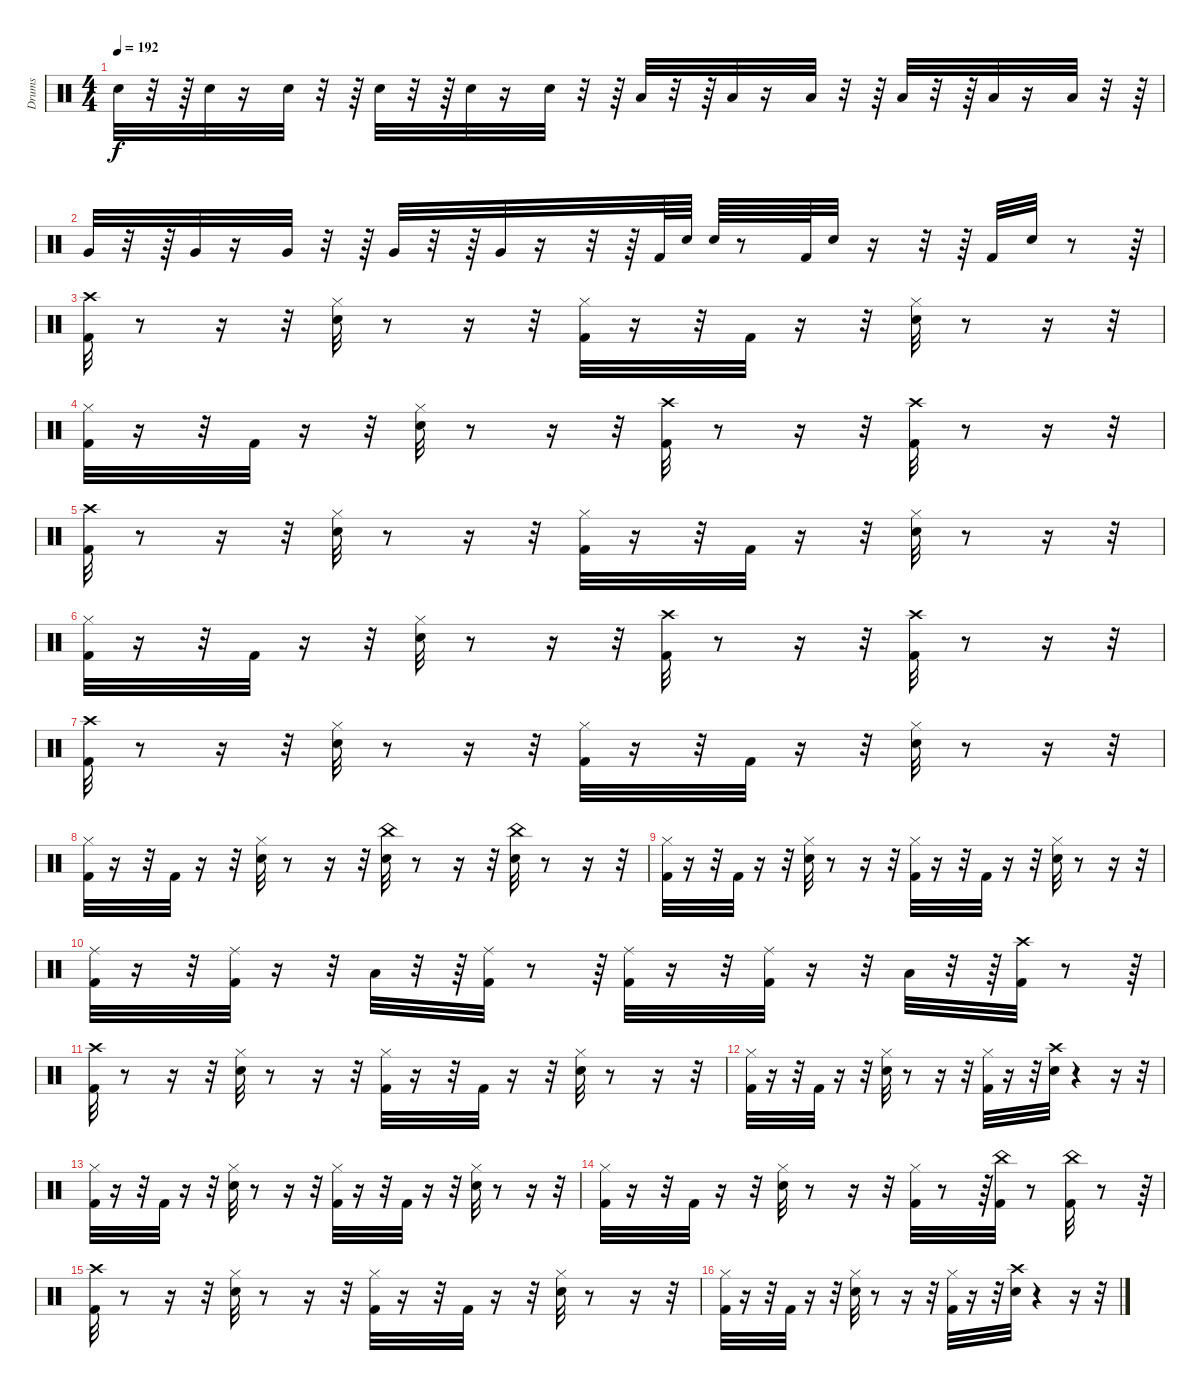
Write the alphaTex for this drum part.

\track ("Drums" "Drums") {instrument percussion}
\staff {score}
\articulation defaults
\ts (4 4)
\tempo 192
\clef neutral
\ks c "Snare (hit) 2".32{dy f}
r.32 r.64 "Snare (hit) 2".32 r.16 "Snare (hit) 2".32 r.32 r.64 "Snare (hit) 2".32 r.32 r.64 "Snare (hit) 2".32 r.16 "Snare (hit) 2".32 r.32 r.64 "Low Tom (hit)".32 r.32 r.64 "Low Tom (hit)".32 r.16 "Low Tom (hit)".32 r.32 r.64 "Low Tom (hit)".32 r.32 r.64 "Low Tom (hit)".32 r.16 "Low Tom (hit)".32 r.32 r.64 |
"Very Low Tom (hit)".32 r.32 r.64 "Very Low Tom (hit)".32 r.16 "Very Low Tom (hit)".32 r.32 r.64 "Very Low Tom (hit)".32 r.32 r.64 "Very Low Tom (hit)".32 r.16 r.32 r.64 "Kick (hit) 2".64 "Snare (hit) 2".64 "Snare (hit) 2".64 r.8 "Kick (hit) 2".64 "Snare (hit) 2".32 r.16 r.32 r.64 "Kick (hit) 2".32 "Snare (hit) 2".32 r.8 r.64 |
("Kick (hit) 2" "Crash high (hit)").32 r.8 r.16 r.32 ("Hi-Hat (closed)" "Snare (hit) 2").32 r.8 r.16 r.32 ("Kick (hit) 2" "Hi-Hat (closed)").32 r.16 r.32 "Kick (hit) 2".32 r.16 r.32 ("Snare (hit) 2" "Hi-Hat (closed)").32 r.8 r.16 r.32 |
("Kick (hit) 2" "Hi-Hat (closed)").32 r.16 r.32 "Kick (hit) 2".32 r.16 r.32 ("Snare (hit) 2" "Hi-Hat (closed)").32 r.8 r.16 r.32 ("Crash high (hit)" "Kick (hit) 2").32 r.8 r.16 r.32 ("Crash high (hit)" "Kick (hit) 2").32 r.8 r.16 r.32 |
("Kick (hit) 2" "Crash high (hit)").32 r.8 r.16 r.32 ("Hi-Hat (closed)" "Snare (hit) 2").32 r.8 r.16 r.32 ("Hi-Hat (closed)" "Kick (hit) 2").32 r.16 r.32 "Kick (hit) 2".32 r.16 r.32 ("Snare (hit) 2" "Hi-Hat (closed)").32 r.8 r.16 r.32 |
("Kick (hit) 2" "Hi-Hat (closed)").32 r.16 r.32 "Kick (hit) 2".32 r.16 r.32 ("Snare (hit) 2" "Hi-Hat (closed)").32 r.8 r.16 r.32 ("Crash high (hit)" "Kick (hit) 2").32 r.8 r.16 r.32 ("Crash high (hit)" "Kick (hit) 2").32 r.8 r.16 r.32 |
("Kick (hit) 2" "Crash high (hit)").32 r.8 r.16 r.32 ("Hi-Hat (closed)" "Snare (hit) 2").32 r.8 r.16 r.32 ("Hi-Hat (closed)" "Kick (hit) 2").32 r.16 r.32 "Kick (hit) 2".32 r.16 r.32 ("Hi-Hat (closed)" "Snare (hit) 2").32 r.8 r.16 r.32 |
("Kick (hit) 2" "Hi-Hat (closed)").32 r.16 r.32 "Kick (hit) 2".32 r.16 r.32 ("Snare (hit) 2" "Hi-Hat (closed)").32 r.8 r.16 r.32 ("China (hit)" "Snare (hit) 2").32 r.8 r.16 r.32 ("China (hit)" "Snare (hit) 2").32 r.8 r.16 r.32 |
("Kick (hit) 2" "Hi-Hat (closed)").32 r.16 r.32 "Kick (hit) 2".32 r.16 r.32 ("Snare (hit) 2" "Hi-Hat (closed)").32 r.8 r.16 r.32 ("Kick (hit) 2" "Hi-Hat (closed)").32 r.16 r.32 "Kick (hit) 2".32 r.16 r.32 ("Snare (hit) 2" "Hi-Hat (closed)").32 r.8 r.16 r.32 |
("Ride (middle)" "Kick (hit) 2").32 r.16 r.32 ("Ride (middle)" "Kick (hit) 2").32 r.16 r.32 "Low Tom (hit)".32 r.32 r.64 ("Ride (middle)" "Kick (hit) 2").32 r.8 r.64 ("Ride (middle)" "Kick (hit) 2").32 r.16 r.32 ("Ride (middle)" "Kick (hit) 2").32 r.16 r.32 "Low Tom (hit)".32 r.32 r.64 ("Crash high (hit)" "Kick (hit) 2").32 r.8 r.64 |
("Kick (hit) 2" "Crash high (hit)").32 r.8 r.16 r.32 ("Hi-Hat (closed)" "Snare (hit) 2").32 r.8 r.16 r.32 ("Hi-Hat (closed)" "Kick (hit) 2").32 r.16 r.32 "Kick (hit) 2".32 r.16 r.32 ("Hi-Hat (closed)" "Snare (hit) 2").32 r.8 r.16 r.32 |
("Kick (hit) 2" "Hi-Hat (closed)").32 r.16 r.32 "Kick (hit) 2".32 r.16 r.32 ("Snare (hit) 2" "Hi-Hat (closed)").32 r.8 r.16 r.32 ("Hi-Hat (closed)" "Kick (hit) 2").32 r.16 r.32 ("Crash high (hit)" "Snare (hit) 2").32 r.4 r.16 r.32 |
("Hi-Hat (closed)" "Kick (hit) 2").32 r.16 r.32 "Kick (hit) 2".32 r.16 r.32 ("Snare (hit) 2" "Hi-Hat (closed)").32 r.8 r.16 r.32 ("Hi-Hat (closed)" "Kick (hit) 2").32 r.16 r.32 "Kick (hit) 2".32 r.16 r.32 ("Snare (hit) 2" "Hi-Hat (closed)").32 r.8 r.16 r.32 |
("Kick (hit) 2" "Hi-Hat (closed)").32 r.16 r.32 "Kick (hit) 2".32 r.16 r.32 ("Snare (hit) 2" "Hi-Hat (closed)").32 r.8 r.16 r.32 ("Hi-Hat (closed)" "Kick (hit) 2").32 r.8 r.64 ("China (hit)" "Kick (hit) 2").32 r.8 ("China (hit)" "Kick (hit) 2").32 r.8 r.64 |
("Kick (hit) 2" "Crash high (hit)").32 r.8 r.16 r.32 ("Hi-Hat (closed)" "Snare (hit) 2").32 r.8 r.16 r.32 ("Hi-Hat (closed)" "Kick (hit) 2").32 r.16 r.32 "Kick (hit) 2".32 r.16 r.32 ("Snare (hit) 2" "Hi-Hat (closed)").32 r.8 r.16 r.32 |
("Hi-Hat (closed)" "Kick (hit) 2").32 r.16 r.32 "Kick (hit) 2".32 r.16 r.32 ("Snare (hit) 2" "Hi-Hat (closed)").32 r.8 r.16 r.32 ("Hi-Hat (closed)" "Kick (hit) 2").32 r.16 r.32 ("Snare (hit) 2" "Crash high (hit)").32 r.4 r.16 r.32
